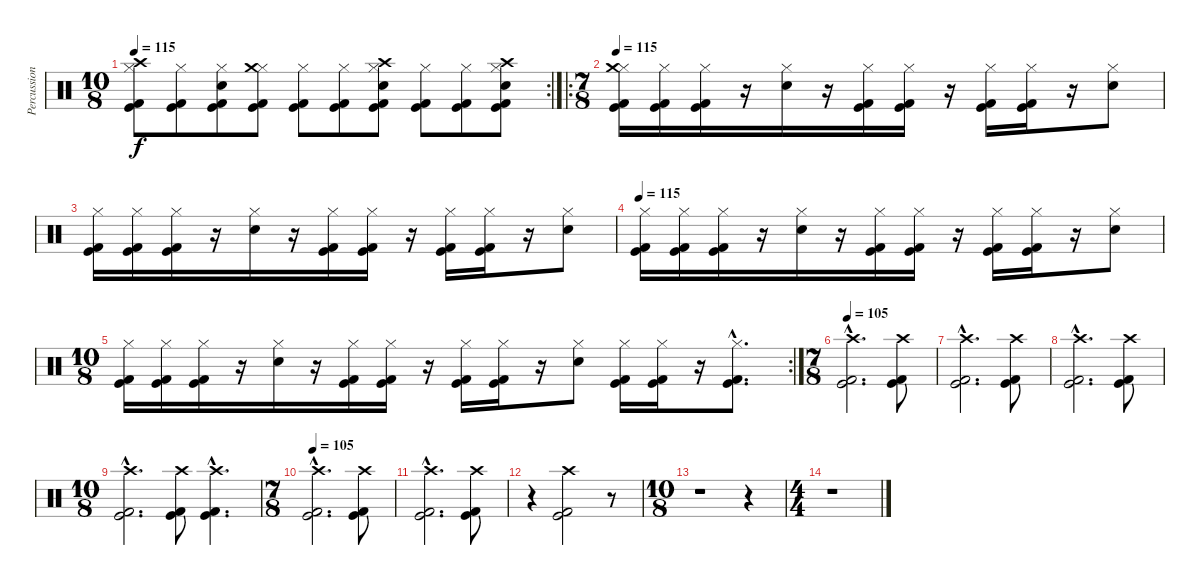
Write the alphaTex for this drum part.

\track ("Percussion" "Percussion") {instrument percussion}
\staff {score}
\articulation defaults
\rc 2
\ts (10 8)
\tempo 115
\clef neutral
\ks c
("Hi-Hat (closed)" "Crash high (hit)" "Kick (hit) 2" "Kick (hit)").8{dy f} ("Hi-Hat (closed)" "Kick (hit) 2" "Kick (hit)").8 ("Hi-Hat (closed)" "Snare (hit) 2" "Kick (hit) 2" "Kick (hit)").8 ("Hi-Hat (closed)" "Crash medium (hit)" "Kick (hit) 2" "Kick (hit)").8 ("Hi-Hat (closed)" "Kick (hit) 2" "Kick (hit)").8 ("Hi-Hat (closed)" "Kick (hit) 2" "Kick (hit)").8 ("Hi-Hat (closed)" "Crash high (hit)" "Snare (hit) 2" "Kick (hit) 2" "Kick (hit)").8 ("Hi-Hat (closed)" "Kick (hit) 2" "Kick (hit)").8 ("Hi-Hat (closed)" "Kick (hit) 2" "Kick (hit)").8 ("Hi-Hat (closed)" "Crash high (hit)" "Snare (hit) 2" "Kick (hit) 2" "Kick (hit)").8 |
\ro
\ts (7 8)
\tempo 115
("Hi-Hat (closed)" "Crash medium (hit)" "Kick (hit) 2" "Kick (hit)").16 ("Hi-Hat (closed)" "Kick (hit) 2" "Kick (hit)").16 ("Hi-Hat (closed)" "Kick (hit) 2" "Kick (hit)").16 r.16 ("Hi-Hat (closed)" "Snare (hit) 2").16 r.16 ("Hi-Hat (closed)" "Kick (hit) 2" "Kick (hit)").16 ("Hi-Hat (closed)" "Kick (hit) 2" "Kick (hit)").16 r.16 ("Hi-Hat (closed)" "Kick (hit) 2" "Kick (hit)").16 ("Hi-Hat (closed)" "Kick (hit) 2" "Kick (hit)").16 r.16 ("Hi-Hat (closed)" "Snare (hit) 2").8 |
("Hi-Hat (closed)" "Kick (hit) 2" "Kick (hit)").16 ("Hi-Hat (closed)" "Kick (hit) 2" "Kick (hit)").16 ("Hi-Hat (closed)" "Kick (hit) 2" "Kick (hit)").16 r.16 ("Hi-Hat (closed)" "Snare (hit) 2").16 r.16 ("Hi-Hat (closed)" "Kick (hit) 2" "Kick (hit)").16 ("Hi-Hat (closed)" "Kick (hit) 2" "Kick (hit)").16 r.16 ("Hi-Hat (closed)" "Kick (hit) 2" "Kick (hit)").16 ("Hi-Hat (closed)" "Kick (hit) 2" "Kick (hit)").16 r.16 ("Hi-Hat (closed)" "Snare (hit) 2").8 |
\tempo 115
("Hi-Hat (closed)" "Kick (hit) 2" "Kick (hit)").16 ("Hi-Hat (closed)" "Kick (hit) 2" "Kick (hit)").16 ("Hi-Hat (closed)" "Kick (hit) 2" "Kick (hit)").16 r.16 ("Hi-Hat (closed)" "Snare (hit) 2").16 r.16 ("Hi-Hat (closed)" "Kick (hit) 2" "Kick (hit)").16 ("Hi-Hat (closed)" "Kick (hit) 2" "Kick (hit)").16 r.16 ("Hi-Hat (closed)" "Kick (hit) 2" "Kick (hit)").16 ("Hi-Hat (closed)" "Kick (hit) 2" "Kick (hit)").16 r.16 ("Hi-Hat (closed)" "Snare (hit) 2").8 |
\rc 2
\ts (10 8)
("Hi-Hat (closed)" "Kick (hit) 2" "Kick (hit)").16 ("Hi-Hat (closed)" "Kick (hit) 2" "Kick (hit)").16 ("Hi-Hat (closed)" "Kick (hit) 2" "Kick (hit)").16 r.16 ("Hi-Hat (closed)" "Snare (hit) 2").16 r.16 ("Hi-Hat (closed)" "Kick (hit) 2" "Kick (hit)").16 ("Hi-Hat (closed)" "Kick (hit) 2" "Kick (hit)").16 r.16 ("Hi-Hat (closed)" "Kick (hit) 2" "Kick (hit)").16 ("Hi-Hat (closed)" "Kick (hit) 2" "Kick (hit)").16 r.16 ("Hi-Hat (closed)" "Snare (hit) 2").8 ("Hi-Hat (closed)" "Kick (hit) 2" "Kick (hit)").16 ("Hi-Hat (closed)" "Kick (hit) 2" "Kick (hit)").16 r.16 ("Hi-Hat (closed)"{hac} "Kick (hit) 2"{hac} "Kick (hit)"{hac}).8{d} |
\ts (7 8)
\tempo 105
("Crash high (hit)"{hac} "Kick (hit) 2"{hac} "Kick (hit)"{hac}).2{d} ("Crash high (hit)" "Kick (hit) 2" "Kick (hit)").8 |
("Crash high (hit)"{hac} "Kick (hit) 2"{hac} "Kick (hit)"{hac}).2{d} ("Crash high (hit)" "Kick (hit) 2" "Kick (hit)").8 |
("Crash high (hit)"{hac} "Kick (hit) 2"{hac} "Kick (hit)"{hac}).2{d} ("Crash high (hit)" "Kick (hit) 2" "Kick (hit)").8 |
\ts (10 8)
("Crash high (hit)"{hac} "Kick (hit) 2"{hac} "Kick (hit)"{hac}).2{d} ("Crash high (hit)" "Kick (hit) 2" "Kick (hit)").8 ("Crash high (hit)"{hac} "Kick (hit) 2"{hac} "Kick (hit)"{hac}).4{d} |
\ts (7 8)
\tempo 105
("Crash high (hit)"{hac} "Kick (hit) 2"{hac} "Kick (hit)"{hac}).2{d} ("Crash high (hit)" "Kick (hit) 2" "Kick (hit)").8 |
("Crash high (hit)"{hac} "Kick (hit) 2"{hac} "Kick (hit)"{hac}).2{d} ("Crash high (hit)" "Kick (hit) 2" "Kick (hit)").8 |
r.4 ("Crash high (hit)" "Kick (hit) 2" "Kick (hit)").2 r.8 |
\ts (10 8)
r.1 r.4 |
\ts (4 4)
r.1
